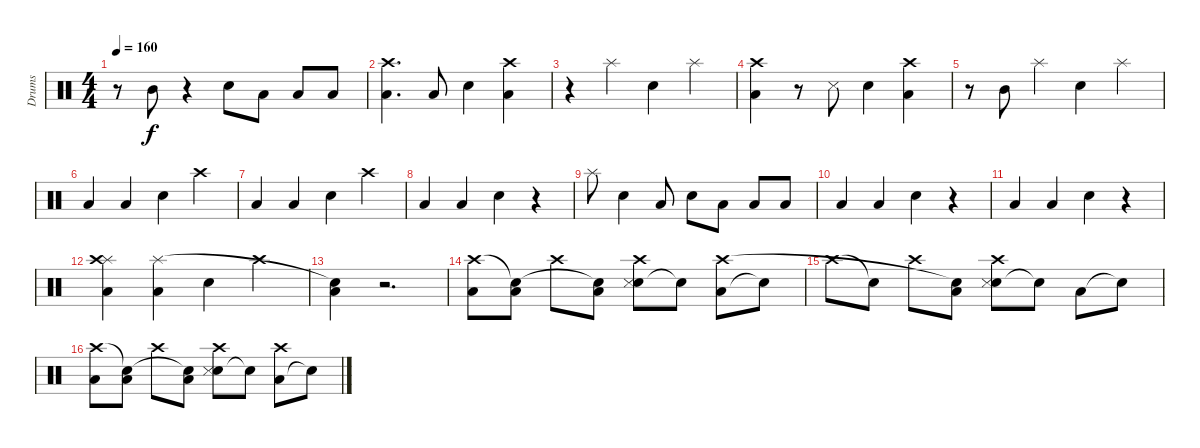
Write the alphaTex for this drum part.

\track ("Drums" "Drums") {instrument percussion}
\staff {score}
\articulation defaults
\ts (4 4)
\tempo 160
\clef neutral
\ks c
r.8{dy f} "Mid Tom (hit)".8 r.4 "Snare (hit) 2".8 "Low Floor Tom (hit)".8 "Low Floor Tom (hit)".8 "Low Floor Tom (hit)".8 |
("Low Floor Tom (hit)" "Crash high (hit)").4{d} "Low Floor Tom (hit)".8 "Snare (hit) 2".4 ("Low Floor Tom (hit)" "Crash high (hit)").4 |
r.4 "Splash (hit)".4 "Snare (hit) 2".4 "Splash (hit)".4 |
("Low Floor Tom (hit)" "Crash high (hit)").4 r.8 "Snare (side stick) 3".8 "Snare (hit) 2".4 ("Low Floor Tom (hit)" "Crash high (hit)").4 |
r.8 "Mid Tom (hit)".8 "Splash (hit)".4 "Snare (hit) 2".4 "Splash (hit)".4 |
"Low Floor Tom (hit)".4 "Low Floor Tom (hit)".4 "Snare (hit) 2".4 "Crash high (hit)".4 |
"Low Floor Tom (hit)".4 "Low Floor Tom (hit)".4 "Snare (hit) 2".4 "Crash high (hit)".4 |
"Low Floor Tom (hit)".4 "Low Floor Tom (hit)".4 "Snare (hit) 2".4 r.4 |
"Splash (hit)".8 "Snare (hit) 2".4 "Low Floor Tom (hit)".8 "Snare (hit) 2".8 "Low Floor Tom (hit)".8 "Low Floor Tom (hit)".8 "Low Floor Tom (hit)".8 |
"Low Floor Tom (hit)".4 "Low Floor Tom (hit)".4 "Snare (hit) 2".4 r.4 |
"Low Floor Tom (hit)".4 "Low Floor Tom (hit)".4 "Snare (hit) 2".4 r.4 |
("Low Floor Tom (hit)" "Splash (hit)" "Crash high (hit)").4 ("Low Floor Tom (hit)" "Splash (hit)").4 "Snare (hit) 2".4 "Crash high (hit)".4 |
("Low Floor Tom (hit)" "Snare (hit)"{t}).4 r.2{d} |
("Low Floor Tom (hit)" "Crash high (hit)").8 ("Low Floor Tom (hit)" "Snare (hit)"{t}).8 "Crash high (hit)".8 ("Low Floor Tom (hit)" "Snare (hit)"{t}).8 ("Snare (hit) 2" "Snare (side stick) 3" "Crash high (hit)").8 "Snare (hit)"{t}.8 ("Low Floor Tom (hit)" "Crash high (hit)").8 "Snare (hit)"{t}.8 |
"Crash high (hit)".8 "Snare (hit)"{t}.8 "Crash high (hit)".8 ("Low Floor Tom (hit)" "Snare (hit)"{t}).8 ("Snare (hit) 2" "Snare (side stick) 3" "Crash high (hit)").8 "Snare (hit)"{t}.8 "Low Floor Tom (hit)".8 "Snare (hit)"{t}.8 |
("Low Floor Tom (hit)" "Crash high (hit)").8 ("Low Floor Tom (hit)" "Snare (hit)"{t}).8 "Crash high (hit)".8 ("Low Floor Tom (hit)" "Snare (hit)"{t}).8 ("Snare (hit) 2" "Snare (side stick) 3" "Crash high (hit)").8 "Snare (hit)"{t}.8 ("Low Floor Tom (hit)" "Crash high (hit)").8 "Snare (hit)"{t}.8
